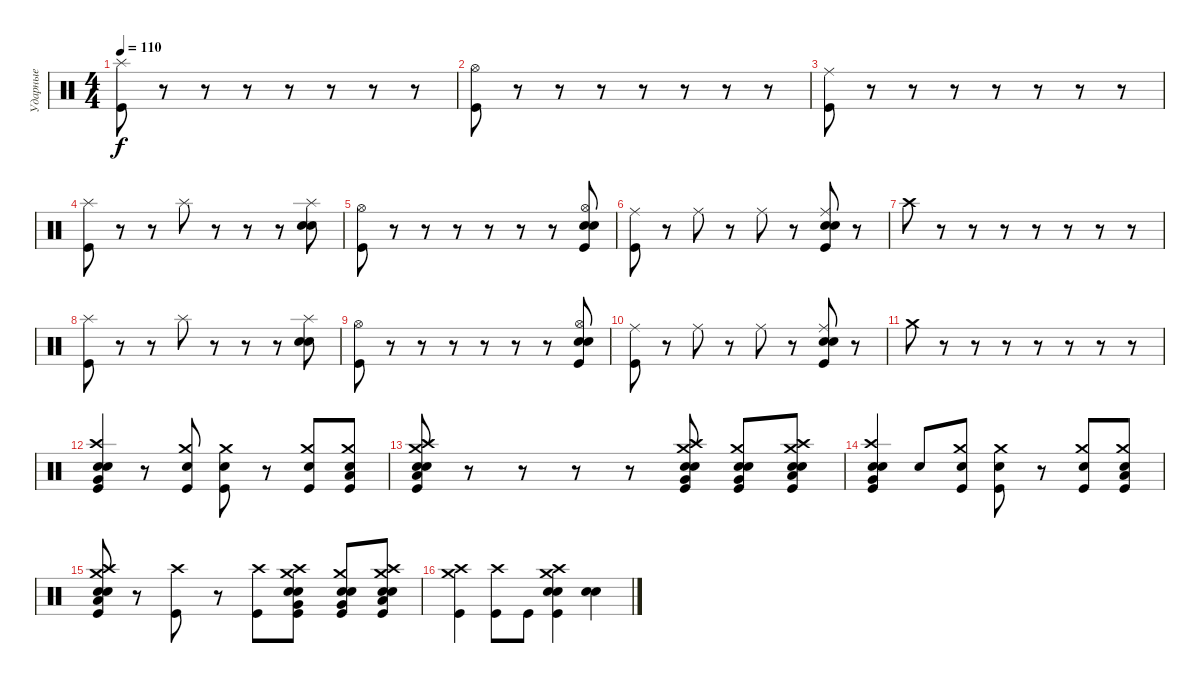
\track ("Ударные" "Ударные") {instrument percussion}
\staff {score}
\articulation defaults
\ts (4 4)
\tempo 110
\clef neutral
\ks c
("Splash (hit)" "Kick (hit)").8{dy f} r.8 r.8 r.8 r.8 r.8 r.8 r.8 |
("Hi-Hat (open)" "Kick (hit)").8 r.8 r.8 r.8 r.8 r.8 r.8 r.8 |
("Ride (middle)" "Kick (hit)").8 r.8 r.8 r.8 r.8 r.8 r.8 r.8 |
("Splash (hit)" "Kick (hit)").8 r.8 r.8 "Splash (hit)".8 r.8 r.8 r.8 ("Splash (hit)" "Snare (hit) 2" "Snare (hit) 2").8 |
("Hi-Hat (open)" "Kick (hit)").8 r.8 r.8 r.8 r.8 r.8 r.8 ("Hi-Hat (open)" "Snare (hit) 2" "Snare (hit) 2" "Kick (hit)").8 |
("Ride (middle)" "Kick (hit)").8 r.8 "Ride (middle)".8 r.8 "Ride (middle)".8 r.8 ("Ride (middle)" "Snare (hit) 2" "Snare (hit) 2" "Kick (hit)").8 r.8 |
"Crash high (hit)".8 r.8 r.8 r.8 r.8 r.8 r.8 r.8 |
("Splash (hit)" "Kick (hit)").8 r.8 r.8 "Splash (hit)".8 r.8 r.8 r.8 ("Splash (hit)" "Snare (hit) 2" "Snare (hit) 2").8 |
("Hi-Hat (open)" "Kick (hit)").8 r.8 r.8 r.8 r.8 r.8 r.8 ("Hi-Hat (open)" "Snare (hit) 2" "Snare (hit) 2" "Kick (hit)").8 |
("Ride (middle)" "Kick (hit)").8 r.8 "Ride (middle)".8 r.8 "Ride (middle)".8 r.8 ("Ride (middle)" "Snare (hit) 2" "Snare (hit) 2" "Kick (hit)").8 r.8 |
"Crash medium (hit)".8 r.8 r.8 r.8 r.8 r.8 r.8 r.8 |
("Crash high (hit)" "Electric Snare (hit)" "Electric Snare (hit)" "Very Low Tom (hit)" "Kick (hit)").4 r.8 ("Crash medium (hit)" "Electric Snare (hit)" "Kick (hit)").8 ("Crash medium (hit)" "Snare (hit) 2" "Kick (hit)").8 r.8 ("Crash medium (hit)" "Electric Snare (hit)" "Kick (hit)").8 ("Crash medium (hit)" "Snare (hit) 2" "Low Floor Tom (hit)" "Kick (hit)").8 |
("Crash high (hit)" "Crash medium (hit)" "Snare (hit) 2" "Snare (hit) 2" "Low Floor Tom (hit)" "Kick (hit)").8 r.8 r.8 r.8 r.8 ("Crash medium (hit)" "Crash high (hit)" "Electric Snare (hit)" "Electric Snare (hit)" "Very Low Tom (hit)" "Kick (hit)").8 ("Crash medium (hit)" "Electric Snare (hit)" "Electric Snare (hit)" "Very Low Tom (hit)" "Kick (hit)").8 ("Crash medium (hit)" "Crash high (hit)" "Electric Snare (hit)" "Electric Snare (hit)" "Low Floor Tom (hit)" "Kick (hit)").8 |
("Crash high (hit)" "Electric Snare (hit)" "Electric Snare (hit)" "Very Low Tom (hit)" "Kick (hit)").4 "Snare (hit) 2".8 ("Crash medium (hit)" "Electric Snare (hit)" "Kick (hit)").8 ("Crash medium (hit)" "Snare (hit) 2" "Kick (hit)").8 r.8 ("Crash medium (hit)" "Electric Snare (hit)" "Kick (hit)").8 ("Crash medium (hit)" "Snare (hit) 2" "Low Floor Tom (hit)" "Kick (hit)").8 |
("Crash high (hit)" "Crash medium (hit)" "Snare (hit) 2" "Snare (hit) 2" "Low Floor Tom (hit)" "Kick (hit)").8 r.8 ("Crash high (hit)" "Kick (hit)").8 r.8 ("Crash high (hit)" "Kick (hit)").8 ("Crash medium (hit)" "Crash high (hit)" "Electric Snare (hit)" "Electric Snare (hit)" "Very Low Tom (hit)" "Kick (hit)").8 ("Crash medium (hit)" "Electric Snare (hit)" "Electric Snare (hit)" "Very Low Tom (hit)" "Kick (hit)").8 ("Crash medium (hit)" "Crash high (hit)" "Electric Snare (hit)" "Electric Snare (hit)" "Low Floor Tom (hit)" "Kick (hit)").8 |
("Crash high (hit)" "Crash medium (hit)" "Kick (hit)").4 ("Crash high (hit)" "Kick (hit)").8 "Kick (hit)".8 ("Crash high (hit)" "Crash medium (hit)" "Snare (hit) 2" "Snare (hit) 2" "Kick (hit)").4 ("Snare (hit) 2" "Snare (hit) 2").4
